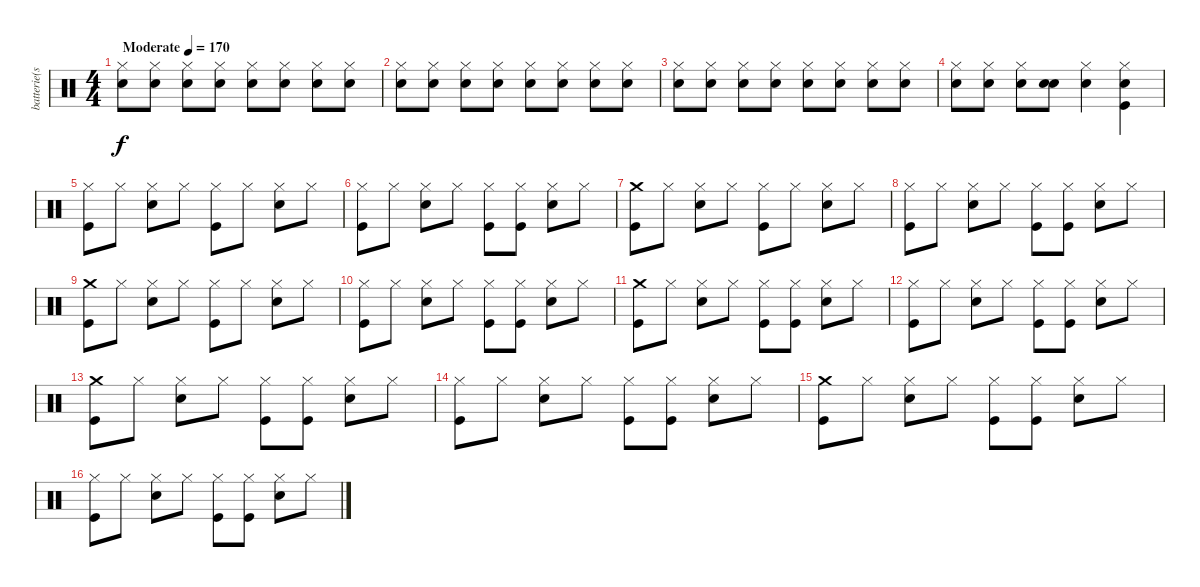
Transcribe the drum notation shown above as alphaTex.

\track ("batterie(steve)" "batterie(s") {instrument percussion}
\staff {score}
\articulation defaults
\ts (4 4)
\tempo (170 "Moderate")
\clef neutral
\ks c
("Hi-Hat (closed)" "Snare (hit) 2").8{dy f volume 2} ("Hi-Hat (closed)" "Snare (hit) 2").8 ("Hi-Hat (closed)" "Snare (hit) 2").8 ("Hi-Hat (closed)" "Snare (hit) 2").8 ("Hi-Hat (closed)" "Snare (hit) 2").8 ("Hi-Hat (closed)" "Snare (hit) 2").8 ("Hi-Hat (closed)" "Snare (hit) 2").8 ("Hi-Hat (closed)" "Snare (hit) 2").8 |
("Hi-Hat (closed)" "Snare (hit) 2").8{volume 4} ("Hi-Hat (closed)" "Snare (hit) 2").8 ("Hi-Hat (closed)" "Snare (hit) 2").8 ("Hi-Hat (closed)" "Snare (hit) 2").8 ("Hi-Hat (closed)" "Snare (hit) 2").8 ("Hi-Hat (closed)" "Snare (hit) 2").8 ("Hi-Hat (closed)" "Snare (hit) 2").8 ("Hi-Hat (closed)" "Snare (hit) 2").8 |
("Hi-Hat (closed)" "Snare (hit) 2").8{volume 7} ("Hi-Hat (closed)" "Snare (hit) 2").8 ("Hi-Hat (closed)" "Snare (hit) 2").8 ("Hi-Hat (closed)" "Snare (hit) 2").8 ("Hi-Hat (closed)" "Snare (hit) 2").8 ("Hi-Hat (closed)" "Snare (hit) 2").8 ("Hi-Hat (closed)" "Snare (hit) 2").8 ("Hi-Hat (closed)" "Snare (hit) 2").8 |
("Hi-Hat (closed)" "Snare (hit) 2").8{volume 10} ("Hi-Hat (closed)" "Snare (hit) 2").8 ("Hi-Hat (closed)" "Snare (hit) 2").8 ("Snare (hit)" "Snare (hit) 2").8 ("Hi-Hat (closed)" "Snare (hit) 2").4 ("Hi-Hat (closed)" "Snare (hit) 2" "Kick (hit)").4 |
("Hi-Hat (closed)" "Kick (hit)").8 "Hi-Hat (closed)".8 ("Hi-Hat (closed)" "Snare (hit) 2").8 "Hi-Hat (closed)".8 ("Hi-Hat (closed)" "Kick (hit)").8 "Hi-Hat (closed)".8 ("Hi-Hat (closed)" "Snare (hit) 2").8 "Hi-Hat (closed)".8 |
("Hi-Hat (closed)" "Kick (hit)").8 "Hi-Hat (closed)".8 ("Hi-Hat (closed)" "Snare (hit) 2").8 "Hi-Hat (closed)".8 ("Hi-Hat (closed)" "Kick (hit)").8 ("Hi-Hat (closed)" "Kick (hit)").8 ("Hi-Hat (closed)" "Snare (hit) 2").8 "Hi-Hat (closed)".8 |
("Crash medium (hit)" "Kick (hit)").8 "Hi-Hat (closed)".8 ("Hi-Hat (closed)" "Snare (hit) 2").8 "Hi-Hat (closed)".8 ("Hi-Hat (closed)" "Kick (hit)").8 "Hi-Hat (closed)".8 ("Hi-Hat (closed)" "Snare (hit) 2").8 "Hi-Hat (closed)".8 |
("Hi-Hat (closed)" "Kick (hit)").8 "Hi-Hat (closed)".8 ("Hi-Hat (closed)" "Snare (hit) 2").8 "Hi-Hat (closed)".8 ("Hi-Hat (closed)" "Kick (hit)").8 ("Hi-Hat (closed)" "Kick (hit)").8 ("Hi-Hat (closed)" "Snare (hit) 2").8 "Hi-Hat (closed)".8 |
("Crash medium (hit)" "Kick (hit)").8 "Hi-Hat (closed)".8 ("Hi-Hat (closed)" "Snare (hit) 2").8 "Hi-Hat (closed)".8 ("Hi-Hat (closed)" "Kick (hit)").8 "Hi-Hat (closed)".8 ("Hi-Hat (closed)" "Snare (hit) 2").8 "Hi-Hat (closed)".8 |
("Hi-Hat (closed)" "Kick (hit)").8 "Hi-Hat (closed)".8 ("Hi-Hat (closed)" "Snare (hit) 2").8 "Hi-Hat (closed)".8 ("Hi-Hat (closed)" "Kick (hit)").8 ("Hi-Hat (closed)" "Kick (hit)").8 ("Hi-Hat (closed)" "Snare (hit) 2").8 "Hi-Hat (closed)".8 |
("Crash medium (hit)" "Kick (hit)").8 "Hi-Hat (closed)".8 ("Hi-Hat (closed)" "Snare (hit) 2").8 "Hi-Hat (closed)".8 ("Hi-Hat (closed)" "Kick (hit)").8 ("Hi-Hat (closed)" "Kick (hit)").8 ("Hi-Hat (closed)" "Snare (hit) 2").8 "Hi-Hat (closed)".8 |
("Hi-Hat (closed)" "Kick (hit)").8 "Hi-Hat (closed)".8 ("Hi-Hat (closed)" "Snare (hit) 2").8 "Hi-Hat (closed)".8 ("Hi-Hat (closed)" "Kick (hit)").8 ("Hi-Hat (closed)" "Kick (hit)").8 ("Hi-Hat (closed)" "Snare (hit) 2").8 "Hi-Hat (closed)".8 |
("Crash medium (hit)" "Kick (hit)").8 "Hi-Hat (closed)".8 ("Hi-Hat (closed)" "Snare (hit) 2").8 "Hi-Hat (closed)".8 ("Hi-Hat (closed)" "Kick (hit)").8 ("Hi-Hat (closed)" "Kick (hit)").8 ("Hi-Hat (closed)" "Snare (hit) 2").8 "Hi-Hat (closed)".8 |
("Hi-Hat (closed)" "Kick (hit)").8 "Hi-Hat (closed)".8 ("Hi-Hat (closed)" "Snare (hit) 2").8 "Hi-Hat (closed)".8 ("Hi-Hat (closed)" "Kick (hit)").8 ("Hi-Hat (closed)" "Kick (hit)").8 ("Hi-Hat (closed)" "Snare (hit) 2").8 "Hi-Hat (closed)".8 |
("Crash medium (hit)" "Kick (hit)").8 "Hi-Hat (closed)".8 ("Hi-Hat (closed)" "Snare (hit) 2").8 "Hi-Hat (closed)".8 ("Hi-Hat (closed)" "Kick (hit)").8 ("Hi-Hat (closed)" "Kick (hit)").8 ("Hi-Hat (closed)" "Snare (hit) 2").8 "Hi-Hat (closed)".8 |
("Hi-Hat (closed)" "Kick (hit)").8 "Hi-Hat (closed)".8 ("Hi-Hat (closed)" "Snare (hit) 2").8 "Hi-Hat (closed)".8 ("Hi-Hat (closed)" "Kick (hit)").8 ("Hi-Hat (closed)" "Kick (hit)").8 ("Hi-Hat (closed)" "Snare (hit) 2").8 "Hi-Hat (closed)".8
